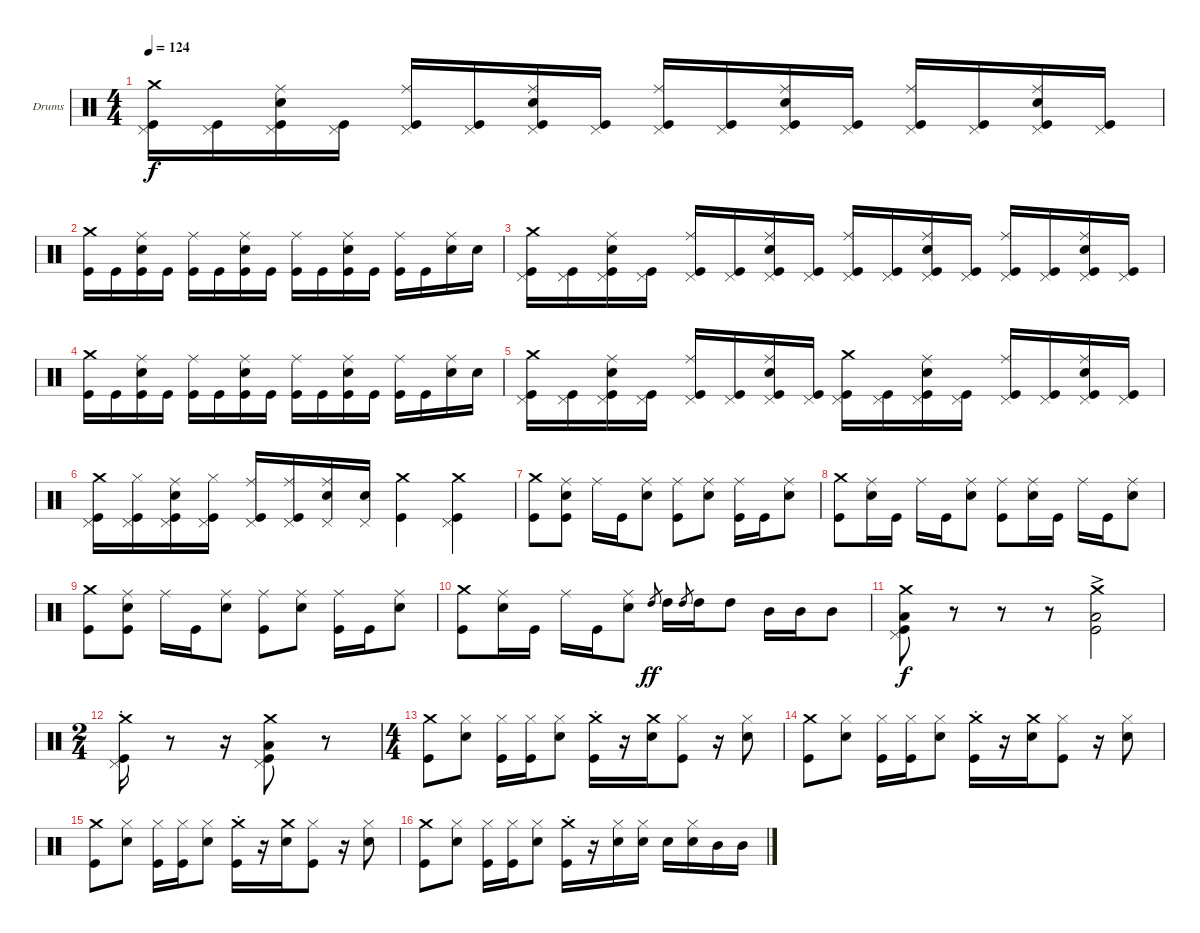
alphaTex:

\defaultSystemsLayout 4
\bracketExtendMode groupsimilarinstruments
\firstSystemTrackNameOrientation horizontal
\otherSystemsTrackNameOrientation horizontal
\track ("Drumkit" "Drums") {instrument percussion}
\staff {score}
\articulation defaults
\ts (4 4)
\tempo 124
\clef neutral
\ks c
("Crash medium (hit)" "Kick (hit)" "Pedal Hi-Hat (hit)").16{dy f} ("Kick (hit)" "Pedal Hi-Hat (hit)").16 ("Snare (hit) 2" "Ride (middle)" "Kick (hit)" "Pedal Hi-Hat (hit)").16 ("Kick (hit)" "Pedal Hi-Hat (hit)").16 ("Ride (middle)" "Kick (hit)" "Pedal Hi-Hat (hit)").16 ("Kick (hit)" "Pedal Hi-Hat (hit)").16 ("Snare (hit) 2" "Ride (middle)" "Kick (hit)" "Pedal Hi-Hat (hit)").16 ("Kick (hit)" "Pedal Hi-Hat (hit)").16 ("Ride (middle)" "Kick (hit)" "Pedal Hi-Hat (hit)").16 ("Kick (hit)" "Pedal Hi-Hat (hit)").16 ("Snare (hit) 2" "Ride (middle)" "Kick (hit)" "Pedal Hi-Hat (hit)").16 ("Kick (hit)" "Pedal Hi-Hat (hit)").16 ("Ride (middle)" "Kick (hit)" "Pedal Hi-Hat (hit)").16 ("Kick (hit)" "Pedal Hi-Hat (hit)").16 ("Snare (hit) 2" "Ride (middle)" "Kick (hit)" "Pedal Hi-Hat (hit)").16 ("Kick (hit)" "Pedal Hi-Hat (hit)").16 |
("Crash medium (hit)" "Kick (hit)").16 "Kick (hit)".16 ("Snare (hit) 2" "Ride (middle)" "Kick (hit)").16 "Kick (hit)".16 ("Ride (middle)" "Kick (hit)").16 "Kick (hit)".16 ("Snare (hit) 2" "Ride (middle)" "Kick (hit)").16 "Kick (hit)".16 ("Ride (middle)" "Kick (hit)").16 "Kick (hit)".16 ("Snare (hit) 2" "Ride (middle)" "Kick (hit)").16 "Kick (hit)".16 ("Ride (middle)" "Kick (hit)").16 "Kick (hit)".16 ("Snare (hit) 2" "Ride (middle)").16 "Snare (hit) 2".16 |
("Crash medium (hit)" "Kick (hit)" "Pedal Hi-Hat (hit)").16 ("Kick (hit)" "Pedal Hi-Hat (hit)").16 ("Snare (hit) 2" "Ride (middle)" "Kick (hit)" "Pedal Hi-Hat (hit)").16 ("Kick (hit)" "Pedal Hi-Hat (hit)").16 ("Ride (middle)" "Kick (hit)" "Pedal Hi-Hat (hit)").16 ("Kick (hit)" "Pedal Hi-Hat (hit)").16 ("Snare (hit) 2" "Ride (middle)" "Kick (hit)" "Pedal Hi-Hat (hit)").16 ("Kick (hit)" "Pedal Hi-Hat (hit)").16 ("Ride (middle)" "Kick (hit)" "Pedal Hi-Hat (hit)").16 ("Kick (hit)" "Pedal Hi-Hat (hit)").16 ("Snare (hit) 2" "Ride (middle)" "Kick (hit)" "Pedal Hi-Hat (hit)").16 ("Kick (hit)" "Pedal Hi-Hat (hit)").16 ("Ride (middle)" "Kick (hit)" "Pedal Hi-Hat (hit)").16 ("Kick (hit)" "Pedal Hi-Hat (hit)").16 ("Snare (hit) 2" "Ride (middle)" "Kick (hit)" "Pedal Hi-Hat (hit)").16 ("Kick (hit)" "Pedal Hi-Hat (hit)").16 |
("Crash medium (hit)" "Kick (hit)").16 "Kick (hit)".16 ("Snare (hit) 2" "Ride (middle)" "Kick (hit)").16 "Kick (hit)".16 ("Ride (middle)" "Kick (hit)").16 "Kick (hit)".16 ("Snare (hit) 2" "Ride (middle)" "Kick (hit)").16 "Kick (hit)".16 ("Ride (middle)" "Kick (hit)").16 "Kick (hit)".16 ("Snare (hit) 2" "Ride (middle)" "Kick (hit)").16 "Kick (hit)".16 ("Ride (middle)" "Kick (hit)").16 "Kick (hit)".16 ("Snare (hit) 2" "Ride (middle)").16 "Snare (hit) 2".16 |
("Crash medium (hit)" "Kick (hit)" "Pedal Hi-Hat (hit)").16 ("Kick (hit)" "Pedal Hi-Hat (hit)").16 ("Snare (hit) 2" "Ride (middle)" "Kick (hit)" "Pedal Hi-Hat (hit)").16 ("Kick (hit)" "Pedal Hi-Hat (hit)").16 ("Ride (middle)" "Kick (hit)" "Pedal Hi-Hat (hit)").16 ("Kick (hit)" "Pedal Hi-Hat (hit)").16 ("Snare (hit) 2" "Ride (middle)" "Kick (hit)" "Pedal Hi-Hat (hit)").16 ("Kick (hit)" "Pedal Hi-Hat (hit)").16 ("Kick (hit)" "Pedal Hi-Hat (hit)" "Crash medium (hit)").16 ("Kick (hit)" "Pedal Hi-Hat (hit)").16 ("Snare (hit) 2" "Ride (middle)" "Kick (hit)" "Pedal Hi-Hat (hit)").16 ("Kick (hit)" "Pedal Hi-Hat (hit)").16 ("Ride (middle)" "Kick (hit)" "Pedal Hi-Hat (hit)").16 ("Kick (hit)" "Pedal Hi-Hat (hit)").16 ("Snare (hit) 2" "Ride (middle)" "Kick (hit)" "Pedal Hi-Hat (hit)").16 ("Kick (hit)" "Pedal Hi-Hat (hit)").16 |
("Crash medium (hit)" "Kick (hit)" "Pedal Hi-Hat (hit)").16 ("Kick (hit)" "Pedal Hi-Hat (hit)" "Hi-Hat (closed)").16 ("Snare (hit) 2" "Ride (middle)" "Kick (hit)" "Pedal Hi-Hat (hit)").16 ("Kick (hit)" "Pedal Hi-Hat (hit)" "Hi-Hat (closed)").16 ("Ride (middle)" "Kick (hit)" "Pedal Hi-Hat (hit)").16 ("Kick (hit)" "Pedal Hi-Hat (hit)" "Ride (middle)").16 ("Snare (hit) 2" "Ride (middle)" "Pedal Hi-Hat (hit)").16 ("Snare (hit) 2" "Pedal Hi-Hat (hit)").16 ("Crash medium (hit)" "Kick (hit)").4 ("Crash medium (hit)" "Kick (hit)" "Pedal Hi-Hat (hit)").4 |
("Kick (hit)" "Crash medium (hit)").8 ("Snare (hit) 2" "Ride (middle)" "Kick (hit)").8 "Ride (middle)".16 "Kick (hit)".16 ("Snare (hit) 2" "Ride (middle)").8 ("Kick (hit)" "Ride (middle)").8 ("Snare (hit) 2" "Ride (middle)").8 ("Kick (hit)" "Ride (middle)").16 "Kick (hit)".16 ("Snare (hit) 2" "Ride (middle)").8 |
("Kick (hit)" "Crash medium (hit)").8 ("Snare (hit) 2" "Ride (middle)").16 "Kick (hit)".16 "Ride (middle)".16 "Kick (hit)".16 ("Snare (hit) 2" "Ride (middle)").8 ("Kick (hit)" "Ride (middle)").8 ("Snare (hit) 2" "Ride (middle)").16 "Kick (hit)".16 "Ride (middle)".16 "Kick (hit)".16 ("Snare (hit) 2" "Ride (middle)").8 |
("Kick (hit)" "Crash medium (hit)").8 ("Snare (hit) 2" "Ride (middle)" "Kick (hit)").8 "Ride (middle)".16 "Kick (hit)".16 ("Snare (hit) 2" "Ride (middle)").8 ("Kick (hit)" "Ride (middle)").8 ("Snare (hit) 2" "Ride (middle)").8 ("Kick (hit)" "Ride (middle)").16 "Kick (hit)".16 ("Snare (hit) 2" "Ride (middle)").8 |
("Kick (hit)" "Crash medium (hit)").8 ("Snare (hit) 2" "Ride (middle)").16 "Kick (hit)".16 "Ride (middle)".16 "Kick (hit)".16 ("Snare (hit) 2" "Ride (middle)").8 "High Tom (hit)".8{gr dy ff} "High Tom (hit)".16 "High Tom (hit)".8{gr} "High Tom (hit)".16 "High Tom (hit)".8 "Mid Tom (hit)".16 "Mid Tom (hit)".16 "Mid Tom (hit)".8 |
("Kick (hit)" "Crash medium (hit)" "Pedal Hi-Hat (hit)" "Low Tom (hit)").8{dy f} r.8 r.8 r.8 ("Kick (hit)"{ac} "Crash medium (hit)"{ac} "Low Tom (hit)"{ac}).2 |
\ts (2 4)
("Kick (hit)" "Crash medium (hit)"{st} "Pedal Hi-Hat (hit)").16 r.8 r.16 ("Pedal Hi-Hat (hit)" "Kick (hit)" "Low Tom (hit)" "Crash medium (hit)").8 r.8 |
\ts (4 4)
("Kick (hit)" "Crash medium (hit)").8 ("Snare (hit) 2" "Hi-Hat (closed)").8 ("Hi-Hat (closed)" "Kick (hit)").16 ("Kick (hit)" "Hi-Hat (closed)").16 ("Snare (hit) 2" "Hi-Hat (closed)").8 ("Kick (hit)"{st} "Crash medium (hit)"{st}).16 r.16 ("Crash medium (hit)" "Snare (hit) 2").16 ("Kick (hit)" "Hi-Hat (closed)").8 r.16 ("Hi-Hat (closed)" "Snare (hit) 2").8 |
("Kick (hit)" "Crash medium (hit)").8 ("Snare (hit) 2" "Hi-Hat (closed)").8 ("Hi-Hat (closed)" "Kick (hit)").16 ("Kick (hit)" "Hi-Hat (closed)").16 ("Snare (hit) 2" "Hi-Hat (closed)").8 ("Kick (hit)"{st} "Crash medium (hit)"{st}).16 r.16 ("Crash medium (hit)" "Snare (hit) 2").16 ("Kick (hit)" "Hi-Hat (closed)").8 r.16 ("Hi-Hat (closed)" "Snare (hit) 2").8 |
("Kick (hit)" "Crash medium (hit)").8 ("Snare (hit) 2" "Hi-Hat (closed)").8 ("Hi-Hat (closed)" "Kick (hit)").16 ("Kick (hit)" "Hi-Hat (closed)").16 ("Snare (hit) 2" "Hi-Hat (closed)").8 ("Kick (hit)"{st} "Crash medium (hit)"{st}).16 r.16 ("Crash medium (hit)" "Snare (hit) 2").16 ("Kick (hit)" "Hi-Hat (closed)").8 r.16 ("Hi-Hat (closed)" "Snare (hit) 2").8 |
("Kick (hit)" "Crash medium (hit)").8 ("Snare (hit) 2" "Hi-Hat (closed)").8 ("Hi-Hat (closed)" "Kick (hit)").16 ("Kick (hit)" "Hi-Hat (closed)").16 ("Snare (hit) 2" "Hi-Hat (closed)").8 ("Kick (hit)"{st} "Crash medium (hit)"{st}).16 r.16 ("Snare (hit) 2" "Hi-Hat (closed)").16 ("Hi-Hat (closed)" "Snare (hit) 2").16 "Snare (hit) 2".16 ("Hi-Hat (closed)" "Snare (hit) 2").16 "Mid Tom (hit)".16 "Mid Tom (hit)".16
